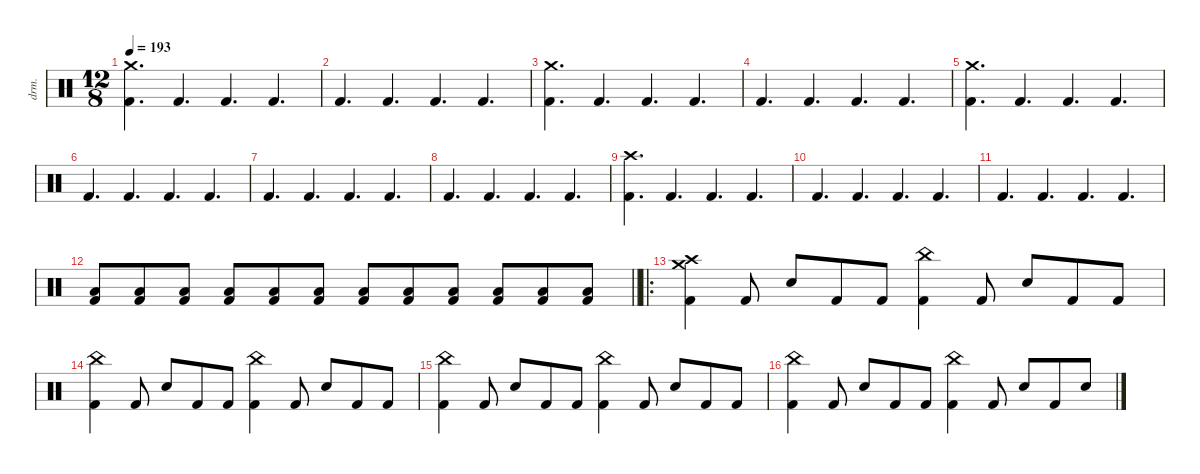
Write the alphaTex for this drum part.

\defaultSystemsLayout 4
\hideDynamics
\bracketExtendMode nobrackets
\otherSystemsTrackNameOrientation horizontal
\track ("Drums" "drm.") {defaultSystemsLayout 4 instrument percussion}
\staff {score}
\articulation defaults
\ts (12 8)
\tempo 193
\clef neutral
\ks c
("Crash medium (hit)" "Kick (hit) 2").4{d dy f beam Down} "Kick (hit) 2".4{d beam Up} "Kick (hit) 2".4{d beam Up} "Kick (hit) 2".4{d beam Up} |
"Kick (hit) 2".4{d beam Up} "Kick (hit) 2".4{d beam Up} "Kick (hit) 2".4{d beam Up} "Kick (hit) 2".4{d beam Up} |
("Crash medium (hit)" "Kick (hit) 2").4{d beam Down} "Kick (hit) 2".4{d beam Up} "Kick (hit) 2".4{d beam Up} "Kick (hit) 2".4{d beam Up} |
"Kick (hit) 2".4{d beam Up} "Kick (hit) 2".4{d beam Up} "Kick (hit) 2".4{d beam Up} "Kick (hit) 2".4{d beam Up} |
("Crash medium (hit)" "Kick (hit) 2").4{d beam Down} "Kick (hit) 2".4{d beam Up} "Kick (hit) 2".4{d beam Up} "Kick (hit) 2".4{d beam Up} |
"Kick (hit) 2".4{d beam Up} "Kick (hit) 2".4{d beam Up} "Kick (hit) 2".4{d beam Up} "Kick (hit) 2".4{d beam Up} |
"Kick (hit) 2".4{d beam Up} "Kick (hit) 2".4{d beam Up} "Kick (hit) 2".4{d beam Up} "Kick (hit) 2".4{d beam Up} |
"Kick (hit) 2".4{d beam Up} "Kick (hit) 2".4{d beam Up} "Kick (hit) 2".4{d beam Up} "Kick (hit) 2".4{d beam Up} |
("Crash high (hit)" "Kick (hit) 2").4{d beam Down} "Kick (hit) 2".4{d beam Up} "Kick (hit) 2".4{d beam Up} "Kick (hit) 2".4{d beam Up} |
"Kick (hit) 2".4{d beam Up} "Kick (hit) 2".4{d beam Up} "Kick (hit) 2".4{d beam Up} "Kick (hit) 2".4{d beam Up} |
"Kick (hit) 2".4{d beam Up} "Kick (hit) 2".4{d beam Up} "Kick (hit) 2".4{d beam Up} "Kick (hit) 2".4{d beam Up} |
\barLineRight lightlight
("Low Tom (hit)" "Kick (hit) 2").8{beam Up} ("Low Floor Tom (hit)" "Kick (hit) 2").8{beam Up} ("Low Floor Tom (hit)" "Kick (hit) 2").8{beam Up} ("Low Tom (hit)" "Kick (hit) 2").8{beam Up} ("Low Floor Tom (hit)" "Kick (hit) 2").8{beam Up} ("Low Floor Tom (hit)" "Kick (hit) 2").8{beam Up} ("Low Tom (hit)" "Kick (hit) 2").8{beam Up} ("Low Floor Tom (hit)" "Kick (hit) 2").8{beam Up} ("Low Floor Tom (hit)" "Kick (hit) 2").8{beam Up} ("Low Tom (hit)" "Kick (hit) 2").8{beam Up} ("Low Floor Tom (hit)" "Kick (hit) 2").8{beam Up} ("Low Floor Tom (hit)" "Kick (hit) 2").8{beam Up} |
\ro
("Crash medium (hit)" "Crash high (hit)" "Kick (hit) 2").4{beam Down} "Kick (hit) 2".8{beam Up} "Snare (hit) 2".8{beam Up} "Kick (hit) 2".8{beam Up} "Kick (hit) 2".8{beam Up} ("China (hit)" "Kick (hit) 2").4{beam Down} "Kick (hit) 2".8{beam Up} "Snare (hit) 2".8{beam Up} "Kick (hit) 2".8{beam Up} "Kick (hit) 2".8{beam Up} |
("China (hit)" "Kick (hit) 2").4{beam Down} "Kick (hit) 2".8{beam Up} "Snare (hit) 2".8{beam Up} "Kick (hit) 2".8{beam Up} "Kick (hit) 2".8{beam Up} ("China (hit)" "Kick (hit) 2").4{beam Down} "Kick (hit) 2".8{beam Up} "Snare (hit) 2".8{beam Up} "Kick (hit) 2".8{beam Up} "Kick (hit) 2".8{beam Up} |
("China (hit)" "Kick (hit) 2").4{beam Down} "Kick (hit) 2".8{beam Up} "Snare (hit) 2".8{beam Up} "Kick (hit) 2".8{beam Up} "Kick (hit) 2".8{beam Up} ("China (hit)" "Kick (hit) 2").4{beam Down} "Kick (hit) 2".8{beam Up} "Snare (hit) 2".8{beam Up} "Kick (hit) 2".8{beam Up} "Kick (hit) 2".8{beam Up} |
("China (hit)" "Kick (hit) 2").4{beam Down} "Kick (hit) 2".8{beam Up} "Snare (hit) 2".8{beam Up} "Kick (hit) 2".8{beam Up} "Kick (hit) 2".8{beam Up} ("China (hit)" "Kick (hit) 2").4{beam Down} "Kick (hit) 2".8{beam Up} "Snare (hit) 2".8{beam Up} "Kick (hit) 2".8{beam Up} "Snare (hit) 2".8{beam Up}
